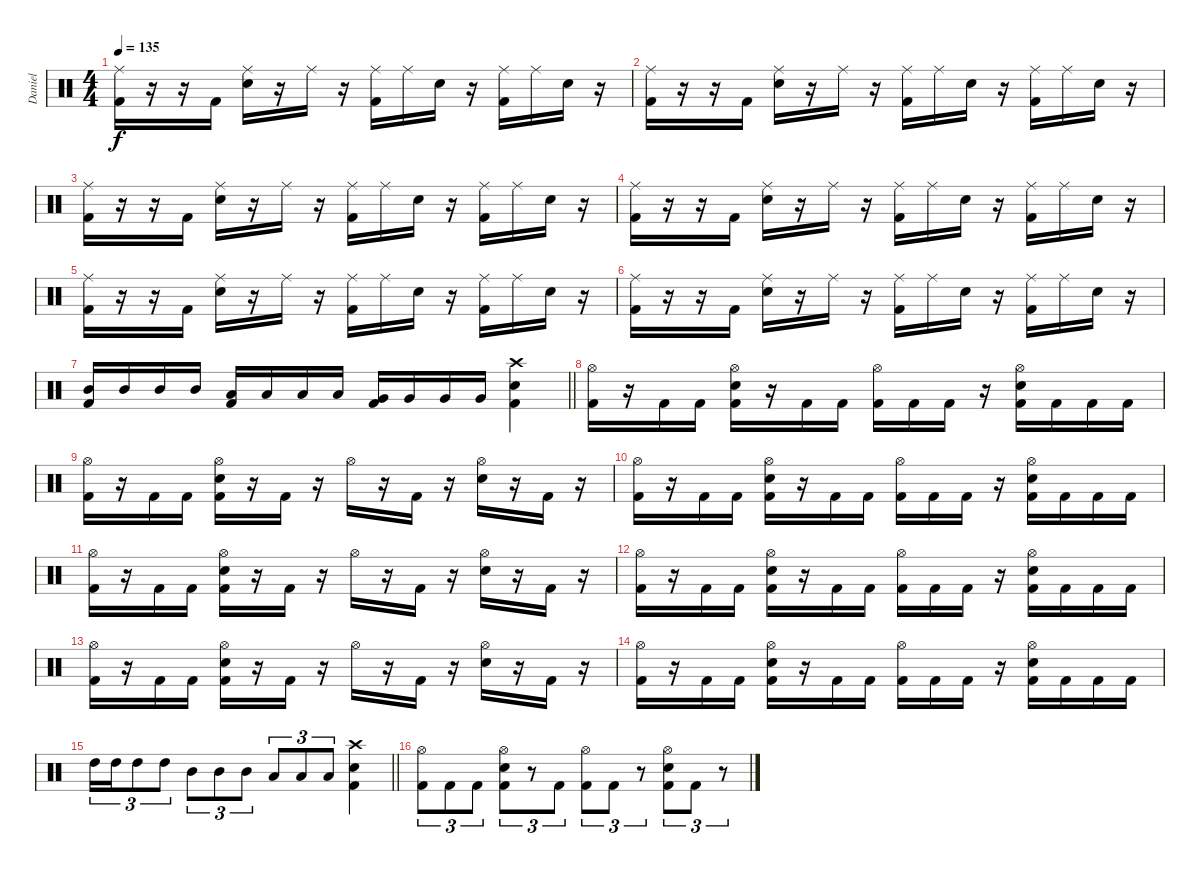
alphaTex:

\track ("Daniel" "Daniel") {instrument percussion}
\staff {score}
\articulation defaults
\ts (4 4)
\tempo 135
\clef neutral
\ks c
("Ride (middle)" "Kick (hit) 2").16{dy f} r.16 r.16 "Kick (hit) 2".16 ("Ride (middle)" "Electric Snare (hit)").16 r.16 "Ride (middle)".16 r.16 ("Ride (middle)" "Kick (hit) 2").16 "Ride (middle)".16 "Electric Snare (hit)".16 r.16 ("Ride (middle)" "Kick (hit) 2").16 "Ride (middle)".16 "Electric Snare (hit)".16 r.16 |
("Ride (middle)" "Kick (hit) 2").16 r.16 r.16 "Kick (hit) 2".16 ("Ride (middle)" "Electric Snare (hit)").16 r.16 "Ride (middle)".16 r.16 ("Ride (middle)" "Kick (hit) 2").16 "Ride (middle)".16 "Electric Snare (hit)".16 r.16 ("Ride (middle)" "Kick (hit) 2").16 "Ride (middle)".16 "Electric Snare (hit)".16 r.16 |
("Ride (middle)" "Kick (hit) 2").16 r.16 r.16 "Kick (hit) 2".16 ("Ride (middle)" "Electric Snare (hit)").16 r.16 "Ride (middle)".16 r.16 ("Ride (middle)" "Kick (hit) 2").16 "Ride (middle)".16 "Electric Snare (hit)".16 r.16 ("Ride (middle)" "Kick (hit) 2").16 "Ride (middle)".16 "Electric Snare (hit)".16 r.16 |
("Ride (middle)" "Kick (hit) 2").16 r.16 r.16 "Kick (hit) 2".16 ("Ride (middle)" "Electric Snare (hit)").16 r.16 "Ride (middle)".16 r.16 ("Ride (middle)" "Kick (hit) 2").16 "Ride (middle)".16 "Electric Snare (hit)".16 r.16 ("Ride (middle)" "Kick (hit) 2").16 "Ride (middle)".16 "Electric Snare (hit)".16 r.16 |
("Ride (middle)" "Kick (hit) 2").16 r.16 r.16 "Kick (hit) 2".16 ("Ride (middle)" "Electric Snare (hit)").16 r.16 "Ride (middle)".16 r.16 ("Ride (middle)" "Kick (hit) 2").16 "Ride (middle)".16 "Electric Snare (hit)".16 r.16 ("Ride (middle)" "Kick (hit) 2").16 "Ride (middle)".16 "Electric Snare (hit)".16 r.16 |
("Ride (middle)" "Kick (hit) 2").16 r.16 r.16 "Kick (hit) 2".16 ("Ride (middle)" "Electric Snare (hit)").16 r.16 "Ride (middle)".16 r.16 ("Ride (middle)" "Kick (hit) 2").16 "Ride (middle)".16 "Electric Snare (hit)".16 r.16 ("Ride (middle)" "Kick (hit) 2").16 "Ride (middle)".16 "Electric Snare (hit)".16 r.16 |
\barLineRight lightlight
("Mid Tom (hit)" "Kick (hit) 2").16 "Mid Tom (hit)".16 "Mid Tom (hit)".16 "Mid Tom (hit)".16 ("Low Tom (hit)" "Kick (hit) 2").16 "Low Tom (hit)".16 "Low Tom (hit)".16 "Low Tom (hit)".16 ("Very Low Tom (hit)" "Kick (hit) 2").16 "Very Low Tom (hit)".16 "Very Low Tom (hit)".16 "Very Low Tom (hit)".16 ("Crash high (hit)" "Electric Snare (hit)" "Kick (hit) 2").4 |
("Hi-Hat (open)" "Kick (hit) 2").16 r.16 "Kick (hit) 2".16 "Kick (hit) 2".16 ("Hi-Hat (open)" "Electric Snare (hit)" "Kick (hit) 2").16 r.16 "Kick (hit) 2".16 "Kick (hit) 2".16 ("Hi-Hat (open)" "Kick (hit) 2").16 "Kick (hit) 2".16 "Kick (hit) 2".16 r.16 ("Hi-Hat (open)" "Electric Snare (hit)" "Kick (hit) 2").16 "Kick (hit) 2".16 "Kick (hit) 2".16 "Kick (hit) 2".16 |
("Hi-Hat (open)" "Kick (hit) 2").16 r.16 "Kick (hit) 2".16 "Kick (hit) 2".16 ("Hi-Hat (open)" "Electric Snare (hit)" "Kick (hit) 2").16 r.16 "Kick (hit) 2".16 r.16 "Hi-Hat (open)".16 r.16 "Kick (hit) 2".16 r.16 ("Hi-Hat (open)" "Electric Snare (hit)").16 r.16 "Kick (hit) 2".16 r.16 |
("Hi-Hat (open)" "Kick (hit) 2").16 r.16 "Kick (hit) 2".16 "Kick (hit) 2".16 ("Hi-Hat (open)" "Electric Snare (hit)" "Kick (hit) 2").16 r.16 "Kick (hit) 2".16 "Kick (hit) 2".16 ("Hi-Hat (open)" "Kick (hit) 2").16 "Kick (hit) 2".16 "Kick (hit) 2".16 r.16 ("Hi-Hat (open)" "Electric Snare (hit)" "Kick (hit) 2").16 "Kick (hit) 2".16 "Kick (hit) 2".16 "Kick (hit) 2".16 |
("Hi-Hat (open)" "Kick (hit) 2").16 r.16 "Kick (hit) 2".16 "Kick (hit) 2".16 ("Hi-Hat (open)" "Electric Snare (hit)" "Kick (hit) 2").16 r.16 "Kick (hit) 2".16 r.16 "Hi-Hat (open)".16 r.16 "Kick (hit) 2".16 r.16 ("Hi-Hat (open)" "Electric Snare (hit)").16 r.16 "Kick (hit) 2".16 r.16 |
("Hi-Hat (open)" "Kick (hit) 2").16 r.16 "Kick (hit) 2".16 "Kick (hit) 2".16 ("Hi-Hat (open)" "Electric Snare (hit)" "Kick (hit) 2").16 r.16 "Kick (hit) 2".16 "Kick (hit) 2".16 ("Hi-Hat (open)" "Kick (hit) 2").16 "Kick (hit) 2".16 "Kick (hit) 2".16 r.16 ("Hi-Hat (open)" "Electric Snare (hit)" "Kick (hit) 2").16 "Kick (hit) 2".16 "Kick (hit) 2".16 "Kick (hit) 2".16 |
("Hi-Hat (open)" "Kick (hit) 2").16 r.16 "Kick (hit) 2".16 "Kick (hit) 2".16 ("Hi-Hat (open)" "Electric Snare (hit)" "Kick (hit) 2").16 r.16 "Kick (hit) 2".16 r.16 "Hi-Hat (open)".16 r.16 "Kick (hit) 2".16 r.16 ("Hi-Hat (open)" "Electric Snare (hit)").16 r.16 "Kick (hit) 2".16 r.16 |
("Hi-Hat (open)" "Kick (hit) 2").16 r.16 "Kick (hit) 2".16 "Kick (hit) 2".16 ("Hi-Hat (open)" "Electric Snare (hit)" "Kick (hit) 2").16 r.16 "Kick (hit) 2".16 "Kick (hit) 2".16 ("Hi-Hat (open)" "Kick (hit) 2").16 "Kick (hit) 2".16 "Kick (hit) 2".16 r.16 ("Hi-Hat (open)" "Electric Snare (hit)" "Kick (hit) 2").16 "Kick (hit) 2".16 "Kick (hit) 2".16 "Kick (hit) 2".16 |
\barLineRight lightlight "High Tom (hit)".16{tu (3 2)} "High Tom (hit)".16{tu (3 2)} "High Tom (hit)".8{tu (3 2)} "High Tom (hit)".8{tu (3 2)} "Mid Tom (hit)".8{tu (3 2)} "Mid Tom (hit)".8{tu (3 2)} "Mid Tom (hit)".8{tu (3 2)} "Low Tom (hit)".8{tu (3 2)} "Low Tom (hit)".8{tu (3 2)} "Low Tom (hit)".8{tu (3 2)}
("Crash high (hit)" "Electric Snare (hit)" "Kick (hit) 2").4 |
("Hi-Hat (open)" "Kick (hit) 2").8{tu (3 2)} "Kick (hit) 2".8{tu (3 2)} "Kick (hit) 2".8{tu (3 2)} ("Hi-Hat (open)" "Electric Snare (hit)" "Kick (hit) 2").8{tu (3 2)} r.8{tu (3 2)} "Kick (hit) 2".8{tu (3 2)} ("Hi-Hat (open)" "Kick (hit) 2").8{tu (3 2)} "Kick (hit) 2".8{tu (3 2)} r.8{tu (3 2)} ("Hi-Hat (open)" "Electric Snare (hit)" "Kick (hit) 2").8{tu (3 2)} "Kick (hit) 2".8{tu (3 2)} r.8{tu (3 2)}
